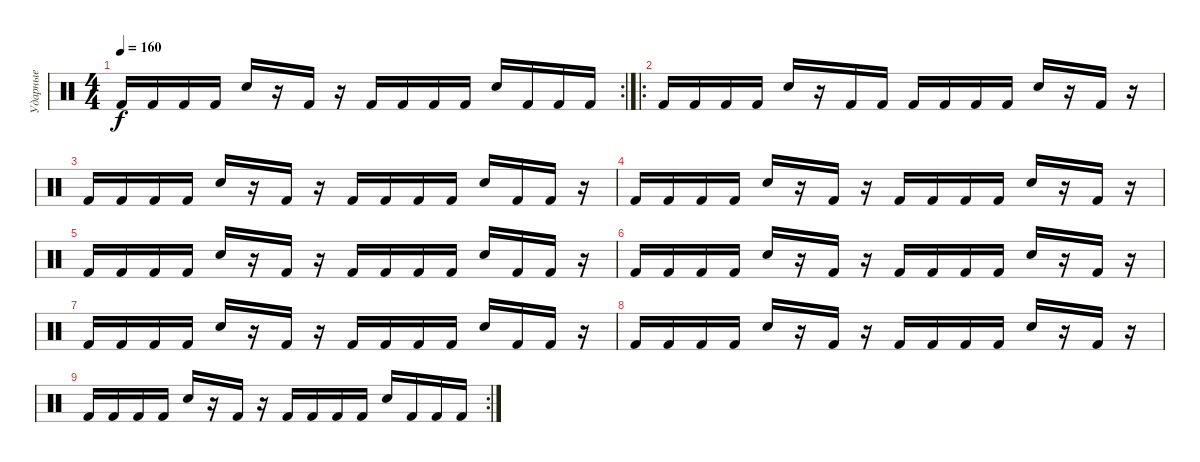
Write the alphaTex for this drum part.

\track ("Ударные" "Ударные") {instrument percussion}
\staff {score}
\articulation defaults
\rc 2
\ts (4 4)
\tempo 160
\clef neutral
\ks c "Kick (hit) 2".16{dy f} "Kick (hit) 2".16 "Kick (hit) 2".16 "Kick (hit) 2".16 "Electric Snare (hit)".16
r.16 "Kick (hit) 2".16 r.16 "Kick (hit) 2".16 "Kick (hit) 2".16 "Kick (hit) 2".16 "Kick (hit) 2".16 "Electric Snare (hit)".16 "Kick (hit) 2".16 "Kick (hit) 2".16 "Kick (hit) 2".16 |
\ro "Kick (hit) 2".16 "Kick (hit) 2".16 "Kick (hit) 2".16 "Kick (hit) 2".16 "Electric Snare (hit)".16
r.16 "Kick (hit) 2".16 "Kick (hit) 2".16 "Kick (hit) 2".16 "Kick (hit) 2".16 "Kick (hit) 2".16 "Kick (hit) 2".16 "Electric Snare (hit)".16 r.16 "Kick (hit) 2".16 r.16 |
"Kick (hit) 2".16 "Kick (hit) 2".16 "Kick (hit) 2".16 "Kick (hit) 2".16 "Electric Snare (hit)".16 r.16 "Kick (hit) 2".16 r.16 "Kick (hit) 2".16 "Kick (hit) 2".16 "Kick (hit) 2".16 "Kick (hit) 2".16 "Electric Snare (hit)".16 "Kick (hit) 2".16 "Kick (hit) 2".16 r.16 |
"Kick (hit) 2".16 "Kick (hit) 2".16 "Kick (hit) 2".16 "Kick (hit) 2".16 "Electric Snare (hit)".16 r.16 "Kick (hit) 2".16 r.16 "Kick (hit) 2".16 "Kick (hit) 2".16 "Kick (hit) 2".16 "Kick (hit) 2".16 "Electric Snare (hit)".16 r.16 "Kick (hit) 2".16 r.16 |
"Kick (hit) 2".16 "Kick (hit) 2".16 "Kick (hit) 2".16 "Kick (hit) 2".16 "Electric Snare (hit)".16 r.16 "Kick (hit) 2".16 r.16 "Kick (hit) 2".16 "Kick (hit) 2".16 "Kick (hit) 2".16 "Kick (hit) 2".16 "Electric Snare (hit)".16 "Kick (hit) 2".16 "Kick (hit) 2".16 r.16 |
"Kick (hit) 2".16 "Kick (hit) 2".16 "Kick (hit) 2".16 "Kick (hit) 2".16 "Electric Snare (hit)".16 r.16 "Kick (hit) 2".16 r.16 "Kick (hit) 2".16 "Kick (hit) 2".16 "Kick (hit) 2".16 "Kick (hit) 2".16 "Electric Snare (hit)".16 r.16 "Kick (hit) 2".16 r.16 |
"Kick (hit) 2".16 "Kick (hit) 2".16 "Kick (hit) 2".16 "Kick (hit) 2".16 "Electric Snare (hit)".16 r.16 "Kick (hit) 2".16 r.16 "Kick (hit) 2".16 "Kick (hit) 2".16 "Kick (hit) 2".16 "Kick (hit) 2".16 "Electric Snare (hit)".16 "Kick (hit) 2".16 "Kick (hit) 2".16 r.16 |
"Kick (hit) 2".16 "Kick (hit) 2".16 "Kick (hit) 2".16 "Kick (hit) 2".16 "Electric Snare (hit)".16 r.16 "Kick (hit) 2".16 r.16 "Kick (hit) 2".16 "Kick (hit) 2".16 "Kick (hit) 2".16 "Kick (hit) 2".16 "Electric Snare (hit)".16 r.16 "Kick (hit) 2".16 r.16 |
\rc 2 "Kick (hit) 2".16 "Kick (hit) 2".16 "Kick (hit) 2".16 "Kick (hit) 2".16 "Electric Snare (hit)".16
r.16 "Kick (hit) 2".16 r.16 "Kick (hit) 2".16 "Kick (hit) 2".16 "Kick (hit) 2".16 "Kick (hit) 2".16 "Electric Snare (hit)".16 "Kick (hit) 2".16 "Kick (hit) 2".16 "Kick (hit) 2".16
